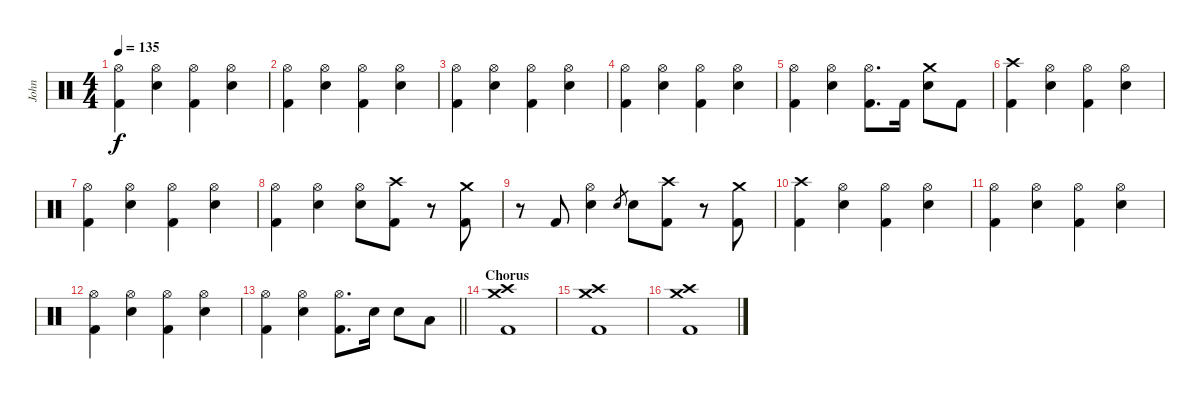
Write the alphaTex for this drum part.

\track ("John" "John") {instrument percussion}
\staff {score}
\articulation defaults
\ts (4 4)
\tempo 135
\clef neutral
\ks c
("Hi-Hat (open)" "Kick (hit) 2").4{dy f} ("Hi-Hat (open)" "Electric Snare (hit)").4 ("Hi-Hat (open)" "Kick (hit) 2").4 ("Hi-Hat (open)" "Electric Snare (hit)").4 |
("Hi-Hat (open)" "Kick (hit) 2").4 ("Hi-Hat (open)" "Electric Snare (hit)").4 ("Hi-Hat (open)" "Kick (hit) 2").4 ("Hi-Hat (open)" "Electric Snare (hit)").4 |
("Hi-Hat (open)" "Kick (hit) 2").4 ("Hi-Hat (open)" "Electric Snare (hit)").4 ("Hi-Hat (open)" "Kick (hit) 2").4 ("Hi-Hat (open)" "Electric Snare (hit)").4 |
("Hi-Hat (open)" "Kick (hit) 2").4 ("Hi-Hat (open)" "Electric Snare (hit)").4 ("Hi-Hat (open)" "Kick (hit) 2").4 ("Hi-Hat (open)" "Electric Snare (hit)").4 |
("Hi-Hat (open)" "Kick (hit) 2").4 ("Hi-Hat (open)" "Electric Snare (hit)").4 ("Hi-Hat (open)" "Kick (hit) 2").8{d} "Kick (hit) 2".16 ("Crash medium (hit)" "Electric Snare (hit)").8 "Kick (hit) 2".8 |
("Crash high (hit)" "Kick (hit) 2").4 ("Hi-Hat (open)" "Electric Snare (hit)").4 ("Hi-Hat (open)" "Kick (hit) 2").4 ("Hi-Hat (open)" "Electric Snare (hit)").4 |
("Hi-Hat (open)" "Kick (hit) 2").4 ("Hi-Hat (open)" "Electric Snare (hit)").4 ("Hi-Hat (open)" "Kick (hit) 2").4 ("Hi-Hat (open)" "Electric Snare (hit)").4 |
("Hi-Hat (open)" "Kick (hit) 2").4 ("Hi-Hat (open)" "Electric Snare (hit)").4 ("Hi-Hat (open)" "Electric Snare (hit)").8 ("Crash high (hit)" "Kick (hit) 2").8 r.8 ("Crash medium (hit)" "Kick (hit) 2").8 |
r.8 "Kick (hit) 2".8 ("Hi-Hat (open)" "Electric Snare (hit)").4 "Electric Snare (hit)".8{gr} "Electric Snare (hit)".8 ("Crash high (hit)" "Kick (hit) 2").8 r.8 ("Crash medium (hit)" "Kick (hit) 2").8 |
("Crash high (hit)" "Kick (hit) 2").4 ("Hi-Hat (open)" "Electric Snare (hit)").4 ("Hi-Hat (open)" "Kick (hit) 2").4 ("Hi-Hat (open)" "Electric Snare (hit)").4 |
("Hi-Hat (open)" "Kick (hit) 2").4 ("Hi-Hat (open)" "Electric Snare (hit)").4 ("Hi-Hat (open)" "Kick (hit) 2").4 ("Hi-Hat (open)" "Electric Snare (hit)").4 |
("Hi-Hat (open)" "Kick (hit) 2").4 ("Hi-Hat (open)" "Electric Snare (hit)").4 ("Hi-Hat (open)" "Kick (hit) 2").4 ("Hi-Hat (open)" "Electric Snare (hit)").4 |
\barLineRight lightlight
("Hi-Hat (open)" "Kick (hit) 2").4 ("Hi-Hat (open)" "Electric Snare (hit)").4 ("Hi-Hat (open)" "Kick (hit) 2").8{d} "Electric Snare (hit)".16 "Electric Snare (hit)".8 "Low Tom (hit)".8 |
\section ("" "Chorus")
("Crash high (hit)" "Crash medium (hit)" "Kick (hit) 2").1 |
("Crash high (hit)" "Crash medium (hit)" "Kick (hit) 2").1 |
("Crash high (hit)" "Crash medium (hit)" "Kick (hit) 2").1
